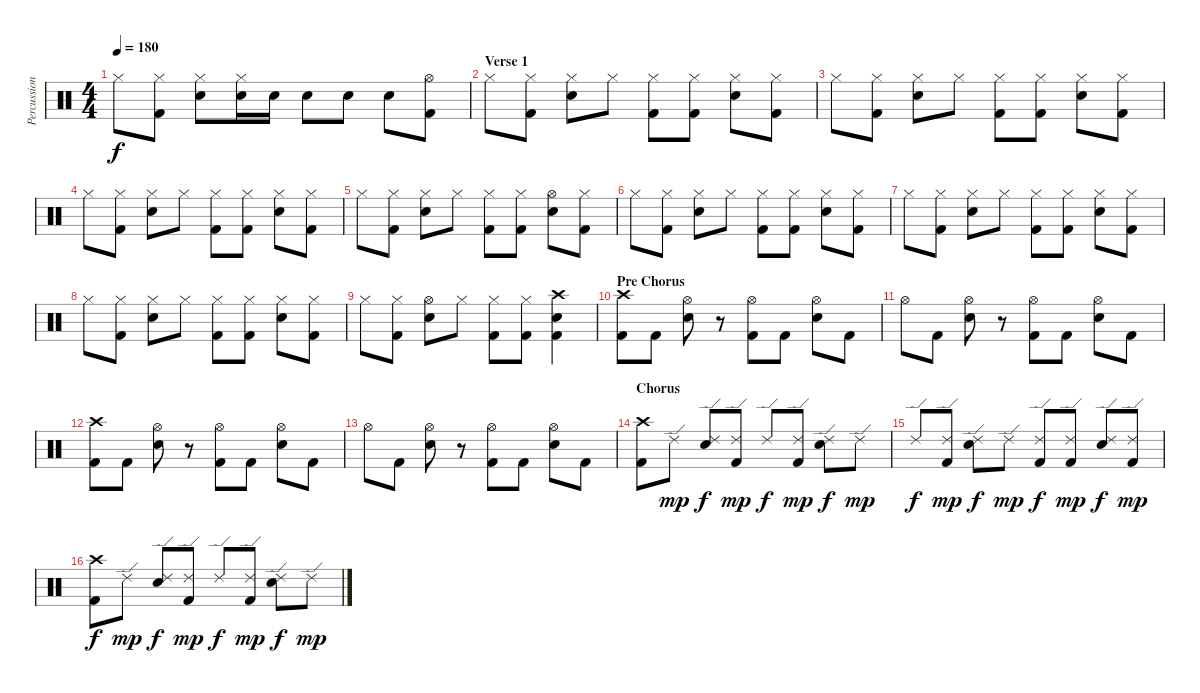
\track ("Percussion" "Percussion") {instrument percussion}
\staff {score}
\articulation defaults
\ts (4 4)
\tempo 180
\clef neutral
\ks c "Hi-Hat (closed)".8{dy f}
("Hi-Hat (closed)" "Kick (hit) 2").8 ("Hi-Hat (closed)" "Electric Snare (hit)").8 ("Hi-Hat (closed)" "Electric Snare (hit)").16 "Electric Snare (hit)".16 "Electric Snare (hit)".8 "Electric Snare (hit)".8 "Electric Snare (hit)".8 ("Hi-Hat (open)" "Kick (hit) 2").8 |
\section ("" "Verse 1")
"Hi-Hat (closed)".8 ("Hi-Hat (closed)" "Kick (hit) 2").8 ("Hi-Hat (closed)" "Electric Snare (hit)").8 "Hi-Hat (closed)".8 ("Hi-Hat (closed)" "Kick (hit) 2").8 ("Hi-Hat (closed)" "Kick (hit) 2").8 ("Hi-Hat (closed)" "Electric Snare (hit)").8 ("Hi-Hat (closed)" "Kick (hit) 2").8 |
"Hi-Hat (closed)".8 ("Hi-Hat (closed)" "Kick (hit) 2").8 ("Hi-Hat (closed)" "Electric Snare (hit)").8 "Hi-Hat (closed)".8 ("Hi-Hat (closed)" "Kick (hit) 2").8 ("Hi-Hat (closed)" "Kick (hit) 2").8 ("Hi-Hat (closed)" "Electric Snare (hit)").8 ("Hi-Hat (closed)" "Kick (hit) 2").8 |
"Hi-Hat (closed)".8 ("Hi-Hat (closed)" "Kick (hit) 2").8 ("Hi-Hat (closed)" "Electric Snare (hit)").8 "Hi-Hat (closed)".8 ("Hi-Hat (closed)" "Kick (hit) 2").8 ("Hi-Hat (closed)" "Kick (hit) 2").8 ("Hi-Hat (closed)" "Electric Snare (hit)").8 ("Hi-Hat (closed)" "Kick (hit) 2").8 |
"Hi-Hat (closed)".8 ("Hi-Hat (closed)" "Kick (hit) 2").8 ("Hi-Hat (closed)" "Electric Snare (hit)").8 "Hi-Hat (closed)".8 ("Hi-Hat (closed)" "Kick (hit) 2").8 ("Hi-Hat (closed)" "Kick (hit) 2").8 ("Hi-Hat (open)" "Electric Snare (hit)").8 ("Hi-Hat (closed)" "Kick (hit) 2").8 |
"Hi-Hat (closed)".8 ("Hi-Hat (closed)" "Kick (hit) 2").8 ("Hi-Hat (closed)" "Electric Snare (hit)").8 "Hi-Hat (closed)".8 ("Hi-Hat (closed)" "Kick (hit) 2").8 ("Hi-Hat (closed)" "Kick (hit) 2").8 ("Hi-Hat (closed)" "Electric Snare (hit)").8 ("Hi-Hat (closed)" "Kick (hit) 2").8 |
"Hi-Hat (closed)".8 ("Hi-Hat (closed)" "Kick (hit) 2").8 ("Hi-Hat (closed)" "Electric Snare (hit)").8 "Hi-Hat (closed)".8 ("Hi-Hat (closed)" "Kick (hit) 2").8 ("Hi-Hat (closed)" "Kick (hit) 2").8 ("Hi-Hat (closed)" "Electric Snare (hit)").8 ("Hi-Hat (closed)" "Kick (hit) 2").8 |
"Hi-Hat (closed)".8 ("Hi-Hat (closed)" "Kick (hit) 2").8 ("Hi-Hat (closed)" "Electric Snare (hit)").8 "Hi-Hat (closed)".8 ("Hi-Hat (closed)" "Kick (hit) 2").8 ("Hi-Hat (closed)" "Kick (hit) 2").8 ("Hi-Hat (closed)" "Electric Snare (hit)").8 ("Hi-Hat (closed)" "Kick (hit) 2").8 |
"Hi-Hat (closed)".8 ("Hi-Hat (closed)" "Kick (hit) 2").8 ("Hi-Hat (open)" "Electric Snare (hit)").8 "Hi-Hat (closed)".8 ("Hi-Hat (closed)" "Kick (hit) 2").8 ("Hi-Hat (closed)" "Kick (hit) 2").8 ("Crash high (hit)" "Electric Snare (hit)" "Kick (hit) 2").4 |
\section ("" "Pre Chorus")
("Crash high (hit)" "Kick (hit) 2").8 "Kick (hit) 2".8 ("Hi-Hat (open)" "Electric Snare (hit)").8 r.8 ("Hi-Hat (open)" "Kick (hit) 2").8 "Kick (hit) 2".8 ("Hi-Hat (open)" "Electric Snare (hit)").8 "Kick (hit) 2".8 |
"Hi-Hat (open)".8 "Kick (hit) 2".8 ("Hi-Hat (open)" "Electric Snare (hit)").8 r.8 ("Hi-Hat (open)" "Kick (hit) 2").8 "Kick (hit) 2".8 ("Hi-Hat (open)" "Electric Snare (hit)").8 "Kick (hit) 2".8 |
("Crash high (hit)" "Kick (hit) 2").8 "Kick (hit) 2".8 ("Hi-Hat (open)" "Electric Snare (hit)").8 r.8 ("Hi-Hat (open)" "Kick (hit) 2").8 "Kick (hit) 2".8 ("Hi-Hat (open)" "Electric Snare (hit)").8 "Kick (hit) 2".8 |
"Hi-Hat (open)".8 "Kick (hit) 2".8 ("Hi-Hat (open)" "Electric Snare (hit)").8 r.8 ("Hi-Hat (open)" "Kick (hit) 2").8 "Kick (hit) 2".8 ("Hi-Hat (open)" "Electric Snare (hit)").8 "Kick (hit) 2".8 |
\section ("" "Chorus")
("Crash high (hit)" "Kick (hit) 2").8 "Ride (edge) 2".8{dy mp} ("Ride (edge) 2" "Electric Snare (hit)").8{dy f} ("Ride (edge) 2" "Kick (hit) 2").8{dy mp} "Ride (edge) 2".8{dy f} ("Ride (edge) 2" "Kick (hit) 2").8{dy mp} ("Ride (edge) 2" "Electric Snare (hit)").8{dy f} "Ride (edge) 2".8{dy mp} |
"Ride (edge) 2".8{dy f} ("Ride (edge) 2" "Kick (hit) 2").8{dy mp} ("Ride (edge) 2" "Electric Snare (hit)").8{dy f} "Ride (edge) 2".8{dy mp} ("Ride (edge) 2" "Kick (hit) 2").8{dy f} ("Ride (edge) 2" "Kick (hit) 2").8{dy mp} ("Ride (edge) 2" "Electric Snare (hit)").8{dy f} ("Ride (edge) 2" "Kick (hit) 2").8{dy mp} |
("Crash high (hit)" "Kick (hit) 2").8{dy f} "Ride (edge) 2".8{dy mp} ("Ride (edge) 2" "Electric Snare (hit)").8{dy f} ("Ride (edge) 2" "Kick (hit) 2").8{dy mp} "Ride (edge) 2".8{dy f} ("Ride (edge) 2" "Kick (hit) 2").8{dy mp} ("Ride (edge) 2" "Electric Snare (hit)").8{dy f} "Ride (edge) 2".8{dy mp}
